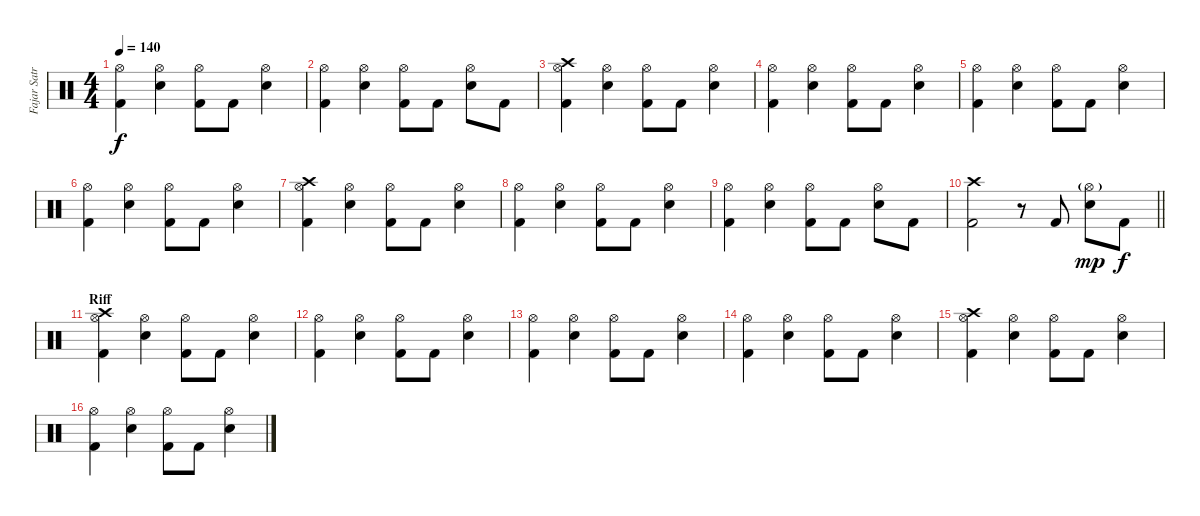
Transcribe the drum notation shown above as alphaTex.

\track ("Fajar Satriana" "Fajar Satr") {instrument percussion}
\staff {score}
\articulation defaults
\ts (4 4)
\tempo 140
\clef neutral
\ks c
("Hi-Hat (open)" "Kick (hit) 2").4{dy f} ("Hi-Hat (open)" "Electric Snare (hit)").4 ("Hi-Hat (open)" "Kick (hit) 2").8 "Kick (hit) 2".8 ("Hi-Hat (open)" "Electric Snare (hit)").4 |
("Hi-Hat (open)" "Kick (hit) 2").4 ("Hi-Hat (open)" "Electric Snare (hit)").4 ("Hi-Hat (open)" "Kick (hit) 2").8 "Kick (hit) 2".8 ("Hi-Hat (open)" "Electric Snare (hit)").8 "Kick (hit) 2".8 |
("Crash high (hit)" "Hi-Hat (open)" "Kick (hit) 2").4 ("Hi-Hat (open)" "Electric Snare (hit)").4 ("Hi-Hat (open)" "Kick (hit) 2").8 "Kick (hit) 2".8 ("Hi-Hat (open)" "Electric Snare (hit)").4 |
("Hi-Hat (open)" "Kick (hit) 2").4 ("Hi-Hat (open)" "Electric Snare (hit)").4 ("Hi-Hat (open)" "Kick (hit) 2").8 "Kick (hit) 2".8 ("Hi-Hat (open)" "Electric Snare (hit)").4 |
("Hi-Hat (open)" "Kick (hit) 2").4 ("Hi-Hat (open)" "Electric Snare (hit)").4 ("Hi-Hat (open)" "Kick (hit) 2").8 "Kick (hit) 2".8 ("Hi-Hat (open)" "Electric Snare (hit)").4 |
("Hi-Hat (open)" "Kick (hit) 2").4 ("Hi-Hat (open)" "Electric Snare (hit)").4 ("Hi-Hat (open)" "Kick (hit) 2").8 "Kick (hit) 2".8 ("Hi-Hat (open)" "Electric Snare (hit)").4 |
("Crash high (hit)" "Hi-Hat (open)" "Kick (hit) 2").4 ("Hi-Hat (open)" "Electric Snare (hit)").4 ("Hi-Hat (open)" "Kick (hit) 2").8 "Kick (hit) 2".8 ("Hi-Hat (open)" "Electric Snare (hit)").4 |
("Hi-Hat (open)" "Kick (hit) 2").4 ("Hi-Hat (open)" "Electric Snare (hit)").4 ("Hi-Hat (open)" "Kick (hit) 2").8 "Kick (hit) 2".8 ("Hi-Hat (open)" "Electric Snare (hit)").4 |
("Hi-Hat (open)" "Kick (hit) 2").4 ("Hi-Hat (open)" "Electric Snare (hit)").4 ("Hi-Hat (open)" "Kick (hit) 2").8 "Kick (hit) 2".8 ("Hi-Hat (open)" "Electric Snare (hit)").8 "Kick (hit) 2".8 |
\barLineRight lightlight
("Crash high (hit)" "Kick (hit) 2").2 r.8 "Kick (hit) 2".8 ("Hi-Hat (open)"{g} "Electric Snare (hit)").8{dy mp} "Kick (hit) 2".8{dy f} |
\section ("" "Riff")
("Crash high (hit)" "Hi-Hat (open)" "Kick (hit) 2").4 ("Hi-Hat (open)" "Electric Snare (hit)").4 ("Hi-Hat (open)" "Kick (hit) 2").8 "Kick (hit) 2".8 ("Hi-Hat (open)" "Electric Snare (hit)").4 |
("Hi-Hat (open)" "Kick (hit) 2").4 ("Hi-Hat (open)" "Electric Snare (hit)").4 ("Hi-Hat (open)" "Kick (hit) 2").8 "Kick (hit) 2".8 ("Hi-Hat (open)" "Electric Snare (hit)").4 |
("Hi-Hat (open)" "Kick (hit) 2").4 ("Hi-Hat (open)" "Electric Snare (hit)").4 ("Hi-Hat (open)" "Kick (hit) 2").8 "Kick (hit) 2".8 ("Hi-Hat (open)" "Electric Snare (hit)").4 |
("Hi-Hat (open)" "Kick (hit) 2").4 ("Hi-Hat (open)" "Electric Snare (hit)").4 ("Hi-Hat (open)" "Kick (hit) 2").8 "Kick (hit) 2".8 ("Hi-Hat (open)" "Electric Snare (hit)").4 |
("Crash high (hit)" "Hi-Hat (open)" "Kick (hit) 2").4 ("Hi-Hat (open)" "Electric Snare (hit)").4 ("Hi-Hat (open)" "Kick (hit) 2").8 "Kick (hit) 2".8 ("Hi-Hat (open)" "Electric Snare (hit)").4 |
("Hi-Hat (open)" "Kick (hit) 2").4 ("Hi-Hat (open)" "Electric Snare (hit)").4 ("Hi-Hat (open)" "Kick (hit) 2").8 "Kick (hit) 2".8 ("Hi-Hat (open)" "Electric Snare (hit)").4
